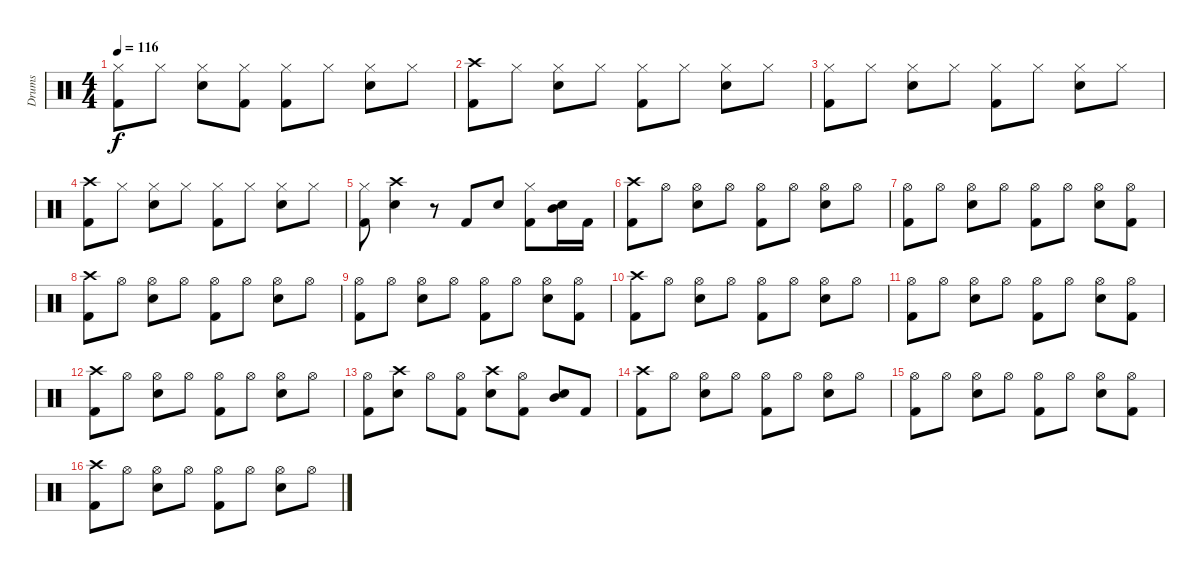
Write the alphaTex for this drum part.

\track ("Drums" "Drums") {instrument percussion}
\staff {score}
\articulation defaults
\ts (4 4)
\tempo 116
\clef neutral
\ks c
("Hi-Hat (closed)" "Kick (hit) 2").8{dy f} "Hi-Hat (closed)".8 ("Hi-Hat (closed)" "Snare (hit) 2").8 ("Hi-Hat (closed)" "Kick (hit) 2").8 ("Hi-Hat (closed)" "Kick (hit) 2").8 "Hi-Hat (closed)".8 ("Hi-Hat (closed)" "Snare (hit) 2").8 "Hi-Hat (closed)".8 |
("Crash high (hit)" "Kick (hit) 2").8 "Hi-Hat (closed)".8 ("Hi-Hat (closed)" "Snare (hit) 2").8 "Hi-Hat (closed)".8 ("Hi-Hat (closed)" "Kick (hit) 2").8 "Hi-Hat (closed)".8 ("Hi-Hat (closed)" "Snare (hit) 2").8 "Hi-Hat (closed)".8 |
("Hi-Hat (closed)" "Kick (hit) 2").8 "Hi-Hat (closed)".8 ("Hi-Hat (closed)" "Snare (hit) 2").8 "Hi-Hat (closed)".8 ("Hi-Hat (closed)" "Kick (hit) 2").8 "Hi-Hat (closed)".8 ("Hi-Hat (closed)" "Snare (hit) 2").8 "Hi-Hat (closed)".8 |
("Crash high (hit)" "Kick (hit) 2").8 "Hi-Hat (closed)".8 ("Hi-Hat (closed)" "Snare (hit) 2").8 "Hi-Hat (closed)".8 ("Hi-Hat (closed)" "Kick (hit) 2").8 "Hi-Hat (closed)".8 ("Hi-Hat (closed)" "Snare (hit) 2").8 "Hi-Hat (closed)".8 |
("Hi-Hat (closed)" "Kick (hit) 2").8 ("Crash high (hit)" "Snare (hit) 2").4 r.8 "Kick (hit) 2".8 "Snare (hit) 2".8 ("Hi-Hat (closed)" "Kick (hit) 2").8 ("Snare (hit) 2" "Mid Tom (hit)").16 "Kick (hit) 2".16 |
("Crash high (hit)" "Kick (hit) 2").8 "Hi-Hat (open)".8 ("Hi-Hat (open)" "Snare (hit) 2").8 "Hi-Hat (open)".8 ("Hi-Hat (open)" "Kick (hit) 2").8 "Hi-Hat (open)".8 ("Hi-Hat (open)" "Snare (hit) 2").8 "Hi-Hat (open)".8 |
("Hi-Hat (open)" "Kick (hit) 2").8 "Hi-Hat (open)".8 ("Hi-Hat (open)" "Snare (hit) 2").8 "Hi-Hat (open)".8 ("Hi-Hat (open)" "Kick (hit) 2").8 "Hi-Hat (open)".8 ("Hi-Hat (open)" "Snare (hit) 2").8 ("Hi-Hat (open)" "Kick (hit) 2").8 |
("Crash high (hit)" "Kick (hit) 2").8 "Hi-Hat (open)".8 ("Hi-Hat (open)" "Snare (hit) 2").8 "Hi-Hat (open)".8 ("Hi-Hat (open)" "Kick (hit) 2").8 "Hi-Hat (open)".8 ("Hi-Hat (open)" "Snare (hit) 2").8 "Hi-Hat (open)".8 |
("Hi-Hat (open)" "Kick (hit) 2").8 "Hi-Hat (open)".8 ("Hi-Hat (open)" "Snare (hit) 2").8 "Hi-Hat (open)".8 ("Hi-Hat (open)" "Kick (hit) 2").8 "Hi-Hat (open)".8 ("Hi-Hat (open)" "Snare (hit) 2").8 ("Hi-Hat (open)" "Kick (hit) 2").8 |
("Crash high (hit)" "Kick (hit) 2").8 "Hi-Hat (open)".8 ("Hi-Hat (open)" "Snare (hit) 2").8 "Hi-Hat (open)".8 ("Hi-Hat (open)" "Kick (hit) 2").8 "Hi-Hat (open)".8 ("Hi-Hat (open)" "Snare (hit) 2").8 "Hi-Hat (open)".8 |
("Hi-Hat (open)" "Kick (hit) 2").8 "Hi-Hat (open)".8 ("Hi-Hat (open)" "Snare (hit) 2").8 "Hi-Hat (open)".8 ("Hi-Hat (open)" "Kick (hit) 2").8 "Hi-Hat (open)".8 ("Hi-Hat (open)" "Snare (hit) 2").8 ("Hi-Hat (open)" "Kick (hit) 2").8 |
("Crash high (hit)" "Kick (hit) 2").8 "Hi-Hat (open)".8 ("Hi-Hat (open)" "Snare (hit) 2").8 "Hi-Hat (open)".8 ("Hi-Hat (open)" "Kick (hit) 2").8 "Hi-Hat (open)".8 ("Hi-Hat (open)" "Snare (hit) 2").8 "Hi-Hat (open)".8 |
("Hi-Hat (open)" "Kick (hit) 2").8 ("Crash high (hit)" "Snare (hit) 2").8 "Hi-Hat (open)".8 ("Hi-Hat (open)" "Kick (hit) 2").8 ("Crash high (hit)" "Snare (hit) 2").8 ("Hi-Hat (open)" "Kick (hit) 2").8 ("Snare (hit) 2" "Mid Tom (hit)").8 "Kick (hit) 2".8 |
("Crash high (hit)" "Kick (hit) 2").8 "Hi-Hat (open)".8 ("Hi-Hat (open)" "Snare (hit) 2").8 "Hi-Hat (open)".8 ("Hi-Hat (open)" "Kick (hit) 2").8 "Hi-Hat (open)".8 ("Hi-Hat (open)" "Snare (hit) 2").8 "Hi-Hat (open)".8 |
("Hi-Hat (open)" "Kick (hit) 2").8 "Hi-Hat (open)".8 ("Hi-Hat (open)" "Snare (hit) 2").8 "Hi-Hat (open)".8 ("Hi-Hat (open)" "Kick (hit) 2").8 "Hi-Hat (open)".8 ("Hi-Hat (open)" "Snare (hit) 2").8 ("Hi-Hat (open)" "Kick (hit) 2").8 |
("Crash high (hit)" "Kick (hit) 2").8 "Hi-Hat (open)".8 ("Hi-Hat (open)" "Snare (hit) 2").8 "Hi-Hat (open)".8 ("Hi-Hat (open)" "Kick (hit) 2").8 "Hi-Hat (open)".8 ("Hi-Hat (open)" "Snare (hit) 2").8 "Hi-Hat (open)".8
